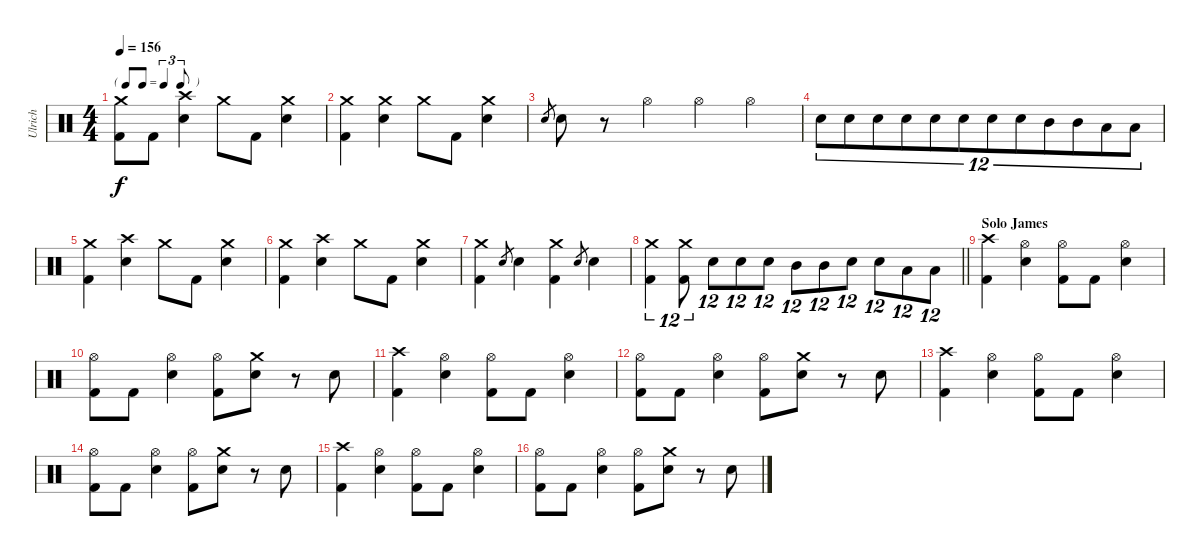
\track ("Ulrich" "Ulrich") {instrument percussion}
\staff {score}
\articulation defaults
\ts (4 4)
\tf triplet8th
\tempo 156
\clef neutral
\ks c
("Crash medium (hit)" "Kick (hit) 2").8{dy f} "Kick (hit) 2".8 ("Crash high (hit)" "Electric Snare (hit)").4 "Crash medium (hit)".8 "Kick (hit) 2".8 ("Crash medium (hit)" "Electric Snare (hit)").4 |
("Crash medium (hit)" "Kick (hit) 2").4 ("Crash medium (hit)" "Electric Snare (hit)").4 "Crash medium (hit)".8 "Kick (hit) 2".8 ("Crash medium (hit)" "Electric Snare (hit)").4 |
"Electric Snare (hit)".8{gr} "Electric Snare (hit)".8 r.8 "Hi-Hat (open)".4 "Hi-Hat (open)".4 "Hi-Hat (open)".4 |
"Electric Snare (hit)".8{tu (12 8)} "Electric Snare (hit)".8{tu (12 8)} "Electric Snare (hit)".8{tu (12 8)} "Electric Snare (hit)".8{tu (12 8)} "Electric Snare (hit)".8{tu (12 8)} "Electric Snare (hit)".8{tu (12 8)} "Electric Snare (hit)".8{tu (12 8)} "Electric Snare (hit)".8{tu (12 8)} "Mid Tom (hit)".8{tu (12 8)} "Mid Tom (hit)".8{tu (12 8)} "Low Tom (hit)".8{tu (12 8)} "Low Tom (hit)".8{tu (12 8)} |
("Crash medium (hit)" "Kick (hit) 2").4 ("Crash high (hit)" "Electric Snare (hit)").4 "Crash medium (hit)".8 "Kick (hit) 2".8 ("Crash medium (hit)" "Electric Snare (hit)").4 |
("Crash medium (hit)" "Kick (hit) 2").4 ("Crash high (hit)" "Electric Snare (hit)").4 "Crash medium (hit)".8 "Kick (hit) 2".8 ("Crash medium (hit)" "Electric Snare (hit)").4 |
("Crash medium (hit)" "Kick (hit) 2").4 "Electric Snare (hit)".8{gr} "Electric Snare (hit)".4 ("Crash medium (hit)" "Kick (hit) 2").4 "Electric Snare (hit)".8{gr} "Electric Snare (hit)".4 |
\barLineRight lightlight
("Crash medium (hit)" "Kick (hit) 2").4{tu (12 8)} ("Crash medium (hit)" "Kick (hit) 2").8{tu (12 8)} "Electric Snare (hit)".8{tu (12 8)} "Electric Snare (hit)".8{tu (12 8)} "Electric Snare (hit)".8{tu (12 8)} "Mid Tom (hit)".8{tu (12 8)} "Mid Tom (hit)".8{tu (12 8)} "Electric Snare (hit)".8{tu (12 8)} "Electric Snare (hit)".8{tu (12 8)} "Low Tom (hit)".8{tu (12 8)} "Low Tom (hit)".8{tu (12 8)} |
\section ("" "Solo James")
("Crash high (hit)" "Kick (hit) 2").4 ("Hi-Hat (open)" "Electric Snare (hit)").4 ("Hi-Hat (open)" "Kick (hit) 2").8 "Kick (hit) 2".8 ("Hi-Hat (open)" "Electric Snare (hit)").4 |
("Hi-Hat (open)" "Kick (hit) 2").8 "Kick (hit) 2".8 ("Hi-Hat (open)" "Electric Snare (hit)").4 ("Hi-Hat (open)" "Kick (hit) 2").8 ("Crash medium (hit)" "Electric Snare (hit)").8 r.8 "Electric Snare (hit)".8 |
("Crash high (hit)" "Kick (hit) 2").4 ("Hi-Hat (open)" "Electric Snare (hit)").4 ("Hi-Hat (open)" "Kick (hit) 2").8 "Kick (hit) 2".8 ("Hi-Hat (open)" "Electric Snare (hit)").4 |
("Hi-Hat (open)" "Kick (hit) 2").8 "Kick (hit) 2".8 ("Hi-Hat (open)" "Electric Snare (hit)").4 ("Hi-Hat (open)" "Kick (hit) 2").8 ("Crash medium (hit)" "Electric Snare (hit)").8 r.8 "Electric Snare (hit)".8 |
("Crash high (hit)" "Kick (hit) 2").4 ("Hi-Hat (open)" "Electric Snare (hit)").4 ("Hi-Hat (open)" "Kick (hit) 2").8 "Kick (hit) 2".8 ("Hi-Hat (open)" "Electric Snare (hit)").4 |
("Hi-Hat (open)" "Kick (hit) 2").8 "Kick (hit) 2".8 ("Hi-Hat (open)" "Electric Snare (hit)").4 ("Hi-Hat (open)" "Kick (hit) 2").8 ("Crash medium (hit)" "Electric Snare (hit)").8 r.8 "Electric Snare (hit)".8 |
("Crash high (hit)" "Kick (hit) 2").4 ("Hi-Hat (open)" "Electric Snare (hit)").4 ("Hi-Hat (open)" "Kick (hit) 2").8 "Kick (hit) 2".8 ("Hi-Hat (open)" "Electric Snare (hit)").4 |
("Hi-Hat (open)" "Kick (hit) 2").8 "Kick (hit) 2".8 ("Hi-Hat (open)" "Electric Snare (hit)").4 ("Hi-Hat (open)" "Kick (hit) 2").8 ("Crash medium (hit)" "Electric Snare (hit)").8 r.8 "Electric Snare (hit)".8
